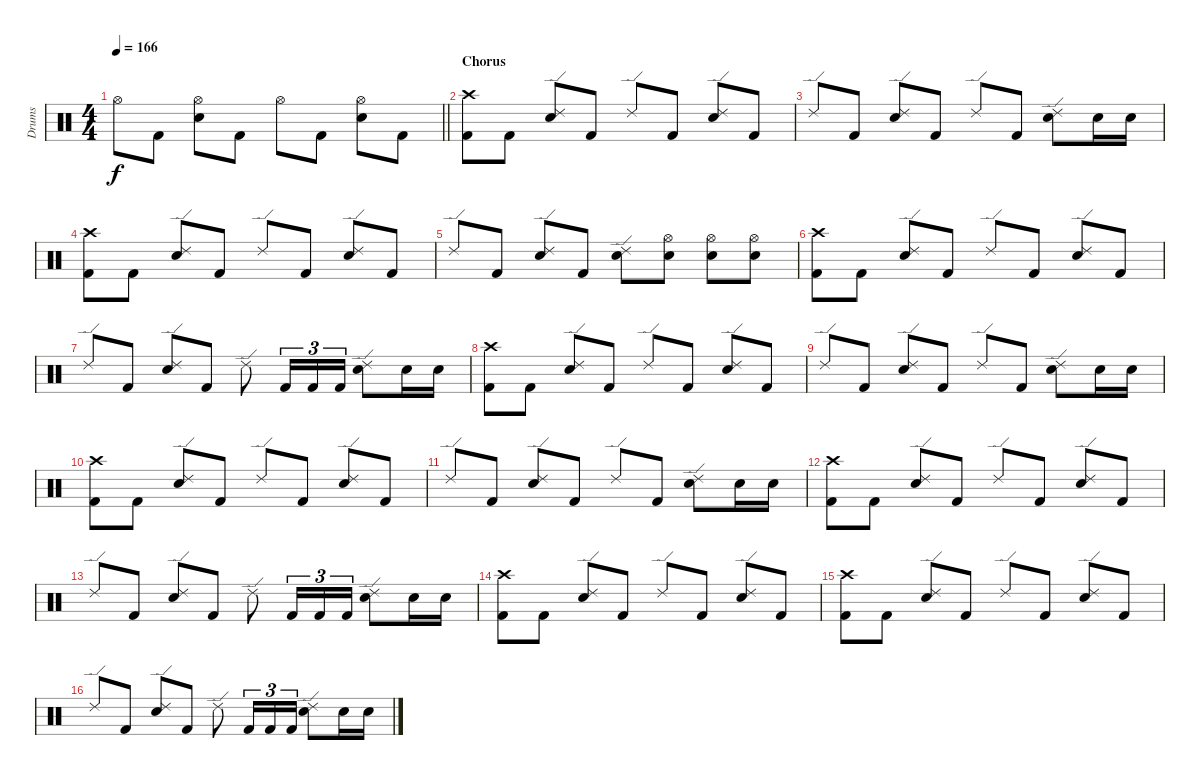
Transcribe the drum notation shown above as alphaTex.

\track ("Drums" "Drums") {instrument percussion}
\staff {score}
\articulation defaults
\ts (4 4)
\tempo 166
\clef neutral
\barLineRight lightlight
\ks c "Hi-Hat (open)".8{dy f} "Kick (hit) 2".8
("Hi-Hat (open)" "Electric Snare (hit)").8 "Kick (hit) 2".8 "Hi-Hat (open)".8 "Kick (hit) 2".8 ("Hi-Hat (open)" "Electric Snare (hit)").8 "Kick (hit) 2".8 |
\section ("" "Chorus")
("Crash high (hit)" "Kick (hit) 2").8 "Kick (hit) 2".8 ("Ride (edge) 2" "Electric Snare (hit)").8 "Kick (hit) 2".8 "Ride (edge) 2".8 "Kick (hit) 2".8 ("Ride (edge) 2" "Electric Snare (hit)").8 "Kick (hit) 2".8 |
"Ride (edge) 2".8 "Kick (hit) 2".8 ("Ride (edge) 2" "Electric Snare (hit)").8 "Kick (hit) 2".8 "Ride (edge) 2".8 "Kick (hit) 2".8 ("Ride (edge) 2" "Electric Snare (hit)").8 "Electric Snare (hit)".16 "Electric Snare (hit)".16 |
("Crash high (hit)" "Kick (hit) 2").8 "Kick (hit) 2".8 ("Ride (edge) 2" "Electric Snare (hit)").8 "Kick (hit) 2".8 "Ride (edge) 2".8 "Kick (hit) 2".8 ("Ride (edge) 2" "Electric Snare (hit)").8 "Kick (hit) 2".8 |
"Ride (edge) 2".8 "Kick (hit) 2".8 ("Ride (edge) 2" "Electric Snare (hit)").8 "Kick (hit) 2".8 ("Ride (edge) 2" "Electric Snare (hit)").8 ("Hi-Hat (open)" "Electric Snare (hit)").8 ("Hi-Hat (open)" "Electric Snare (hit)").8 ("Hi-Hat (open)" "Electric Snare (hit)").8 |
("Crash high (hit)" "Kick (hit) 2").8 "Kick (hit) 2".8 ("Ride (edge) 2" "Electric Snare (hit)").8 "Kick (hit) 2".8 "Ride (edge) 2".8 "Kick (hit) 2".8 ("Ride (edge) 2" "Electric Snare (hit)").8 "Kick (hit) 2".8 |
"Ride (edge) 2".8 "Kick (hit) 2".8 ("Ride (edge) 2" "Electric Snare (hit)").8 "Kick (hit) 2".8 "Ride (edge) 2".8 "Kick (hit) 2".16{tu (3 2)} "Kick (hit) 2".16{tu (3 2)} "Kick (hit) 2".16{tu (3 2)} ("Ride (edge) 2" "Electric Snare (hit)").8 "Electric Snare (hit)".16 "Electric Snare (hit)".16 |
("Crash high (hit)" "Kick (hit) 2").8 "Kick (hit) 2".8 ("Ride (edge) 2" "Electric Snare (hit)").8 "Kick (hit) 2".8 "Ride (edge) 2".8 "Kick (hit) 2".8 ("Ride (edge) 2" "Electric Snare (hit)").8 "Kick (hit) 2".8 |
"Ride (edge) 2".8 "Kick (hit) 2".8 ("Ride (edge) 2" "Electric Snare (hit)").8 "Kick (hit) 2".8 "Ride (edge) 2".8 "Kick (hit) 2".8 ("Ride (edge) 2" "Electric Snare (hit)").8 "Electric Snare (hit)".16 "Electric Snare (hit)".16 |
("Crash high (hit)" "Kick (hit) 2").8 "Kick (hit) 2".8 ("Ride (edge) 2" "Electric Snare (hit)").8 "Kick (hit) 2".8 "Ride (edge) 2".8 "Kick (hit) 2".8 ("Ride (edge) 2" "Electric Snare (hit)").8 "Kick (hit) 2".8 |
"Ride (edge) 2".8 "Kick (hit) 2".8 ("Ride (edge) 2" "Electric Snare (hit)").8 "Kick (hit) 2".8 "Ride (edge) 2".8 "Kick (hit) 2".8 ("Ride (edge) 2" "Electric Snare (hit)").8 "Electric Snare (hit)".16 "Electric Snare (hit)".16 |
("Crash high (hit)" "Kick (hit) 2").8 "Kick (hit) 2".8 ("Ride (edge) 2" "Electric Snare (hit)").8 "Kick (hit) 2".8 "Ride (edge) 2".8 "Kick (hit) 2".8 ("Ride (edge) 2" "Electric Snare (hit)").8 "Kick (hit) 2".8 |
"Ride (edge) 2".8 "Kick (hit) 2".8 ("Ride (edge) 2" "Electric Snare (hit)").8 "Kick (hit) 2".8 "Ride (edge) 2".8 "Kick (hit) 2".16{tu (3 2)} "Kick (hit) 2".16{tu (3 2)} "Kick (hit) 2".16{tu (3 2)} ("Ride (edge) 2" "Electric Snare (hit)").8 "Electric Snare (hit)".16 "Electric Snare (hit)".16 |
("Crash high (hit)" "Kick (hit) 2").8 "Kick (hit) 2".8 ("Ride (edge) 2" "Electric Snare (hit)").8 "Kick (hit) 2".8 "Ride (edge) 2".8 "Kick (hit) 2".8 ("Ride (edge) 2" "Electric Snare (hit)").8 "Kick (hit) 2".8 |
("Crash high (hit)" "Kick (hit) 2").8 "Kick (hit) 2".8 ("Ride (edge) 2" "Electric Snare (hit)").8 "Kick (hit) 2".8 "Ride (edge) 2".8 "Kick (hit) 2".8 ("Ride (edge) 2" "Electric Snare (hit)").8 "Kick (hit) 2".8 |
"Ride (edge) 2".8 "Kick (hit) 2".8 ("Ride (edge) 2" "Electric Snare (hit)").8 "Kick (hit) 2".8 "Ride (edge) 2".8 "Kick (hit) 2".16{tu (3 2)} "Kick (hit) 2".16{tu (3 2)} "Kick (hit) 2".16{tu (3 2)} ("Ride (edge) 2" "Electric Snare (hit)").8 "Electric Snare (hit)".16 "Electric Snare (hit)".16
